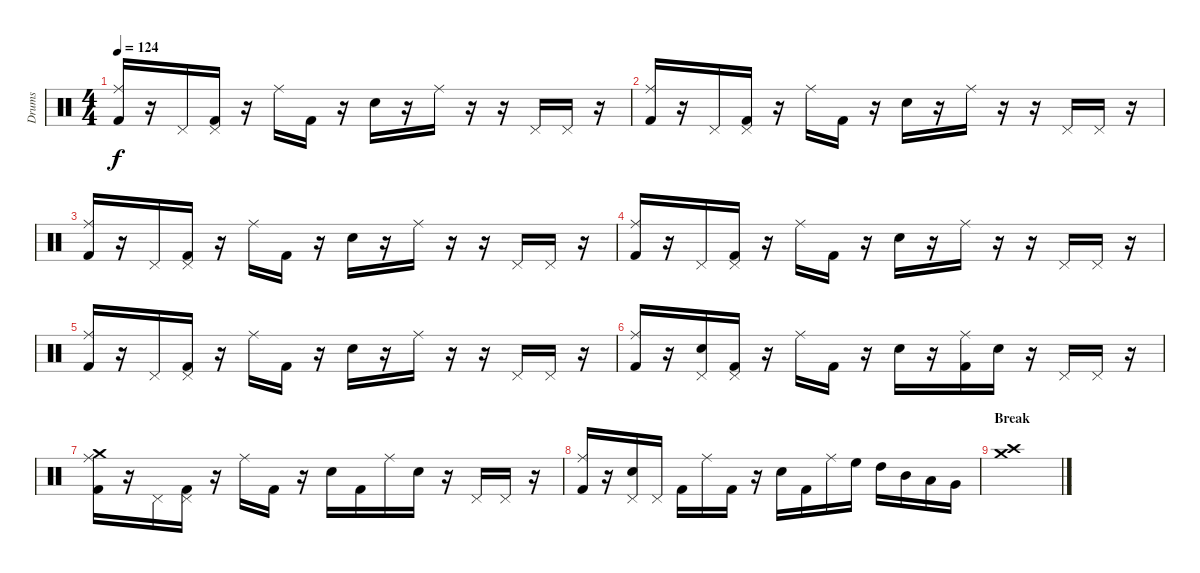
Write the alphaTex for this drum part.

\track ("Drums" "Drums") {instrument percussion}
\staff {score}
\articulation defaults
\ts (4 4)
\tempo 124
\clef neutral
\ks c
("Ride (middle)" "Kick (hit) 2").16{dy f} r.16 "Pedal Hi-Hat (hit)".16 ("Pedal Hi-Hat (hit)" "Kick (hit) 2").16 r.16 "Ride (middle)".16 "Kick (hit) 2".16 r.16 "Electric Snare (hit)".16 r.16 "Ride (middle)".16 r.16 r.16 "Pedal Hi-Hat (hit)".16 "Pedal Hi-Hat (hit)".16 r.16 |
("Ride (middle)" "Kick (hit) 2").16 r.16 "Pedal Hi-Hat (hit)".16 ("Pedal Hi-Hat (hit)" "Kick (hit) 2").16 r.16 "Ride (middle)".16 "Kick (hit) 2".16 r.16 "Electric Snare (hit)".16 r.16 "Ride (middle)".16 r.16 r.16 "Pedal Hi-Hat (hit)".16 "Pedal Hi-Hat (hit)".16 r.16 |
("Ride (middle)" "Kick (hit) 2").16 r.16 "Pedal Hi-Hat (hit)".16 ("Pedal Hi-Hat (hit)" "Kick (hit) 2").16 r.16 "Ride (middle)".16 "Kick (hit) 2".16 r.16 "Electric Snare (hit)".16 r.16 "Ride (middle)".16 r.16 r.16 "Pedal Hi-Hat (hit)".16 "Pedal Hi-Hat (hit)".16 r.16 |
("Ride (middle)" "Kick (hit) 2").16 r.16 "Pedal Hi-Hat (hit)".16 ("Pedal Hi-Hat (hit)" "Kick (hit) 2").16 r.16 "Ride (middle)".16 "Kick (hit) 2".16 r.16 "Electric Snare (hit)".16 r.16 "Ride (middle)".16 r.16 r.16 "Pedal Hi-Hat (hit)".16 "Pedal Hi-Hat (hit)".16 r.16 |
("Ride (middle)" "Kick (hit) 2").16 r.16 "Pedal Hi-Hat (hit)".16 ("Pedal Hi-Hat (hit)" "Kick (hit) 2").16 r.16 "Ride (middle)".16 "Kick (hit) 2".16 r.16 "Electric Snare (hit)".16 r.16 "Ride (middle)".16 r.16 r.16 "Pedal Hi-Hat (hit)".16 "Pedal Hi-Hat (hit)".16 r.16 |
("Ride (middle)" "Kick (hit) 2").16 r.16 ("Pedal Hi-Hat (hit)" "Electric Snare (hit)").16 ("Pedal Hi-Hat (hit)" "Kick (hit) 2").16 r.16 "Ride (middle)".16 "Kick (hit) 2".16 r.16 "Electric Snare (hit)".16 r.16 ("Ride (middle)" "Kick (hit) 2").16 "Electric Snare (hit)".16 r.16 "Pedal Hi-Hat (hit)".16 "Pedal Hi-Hat (hit)".16 r.16 |
("Ride (middle)" "Crash medium (hit)" "Kick (hit) 2").16 r.16 "Pedal Hi-Hat (hit)".16 ("Pedal Hi-Hat (hit)" "Kick (hit) 2").16 r.16 "Ride (middle)".16 "Kick (hit) 2".16 r.16 "Electric Snare (hit)".16 "Kick (hit) 2".16 "Ride (middle)".16 "Electric Snare (hit)".16 r.16 "Pedal Hi-Hat (hit)".16 "Pedal Hi-Hat (hit)".16 r.16 |
("Ride (middle)" "Kick (hit) 2").16 r.16 ("Pedal Hi-Hat (hit)" "Electric Snare (hit)").16 "Pedal Hi-Hat (hit)".16 "Kick (hit) 2".16 "Ride (middle)".16 "Kick (hit) 2".16 r.16 "Electric Snare (hit)".16 "Kick (hit) 2".16 "Ride (middle)".16 "High Floor Tom (hit)".16 "High Tom (hit)".16 "Mid Tom (hit)".16 "Low Tom (hit)".16 "Very Low Tom (hit)".16 |
\section ("" "Break")
("Crash medium (hit)" "Crash high (hit)").1
